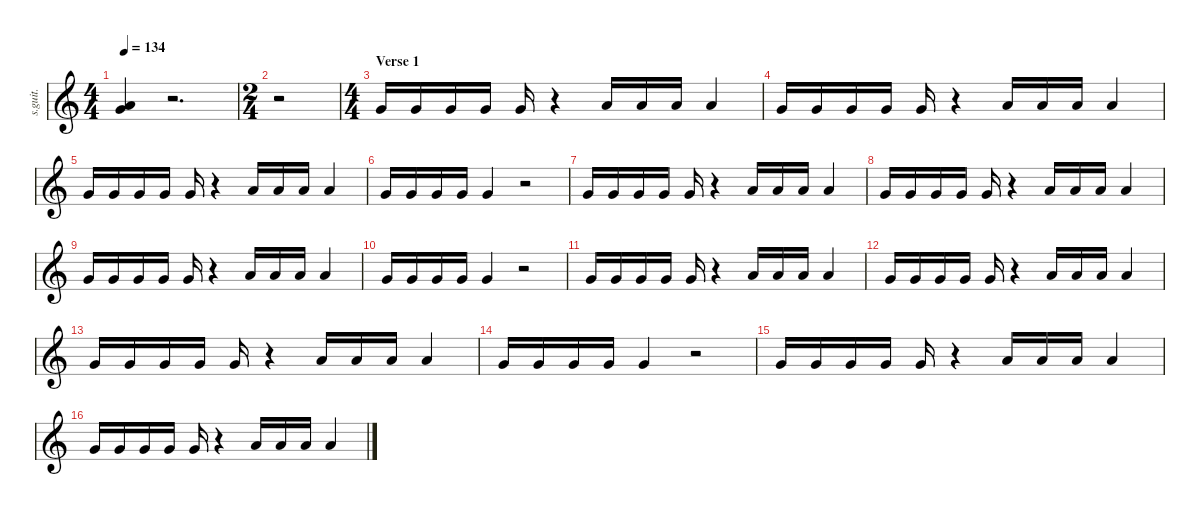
\defaultSystemsLayout 4
\hideDynamics
\bracketExtendMode nobrackets
\track ("Shawn Crahan" "s.guit.") {instrument percussion}
\staff {score}
\articulation defaults
\ts (4 4)
\tempo 134
\clef g2
\ks c
("Very Low Tom (hit)" "Low Floor Tom (hit)").4{dy f} r.2{d} |
\ts (2 4)
\beaming (8 2 2 2 2)
r.2 |
\ts (4 4)
\beaming (8 2 2 2 2)
\section ("" "Verse 1")
"Very Low Tom (hit)".16 "Very Low Tom (hit)".16 "Very Low Tom (hit)".16 "Very Low Tom (hit)".16 "Very Low Tom (hit)".16 r.4 "Low Floor Tom (hit)".16 "Low Floor Tom (hit)".16 "Low Floor Tom (hit)".16 "Low Floor Tom (hit)".4 |
"Very Low Tom (hit)".16 "Very Low Tom (hit)".16 "Very Low Tom (hit)".16 "Very Low Tom (hit)".16 "Very Low Tom (hit)".16 r.4 "Low Floor Tom (hit)".16 "Low Floor Tom (hit)".16 "Low Floor Tom (hit)".16 "Low Floor Tom (hit)".4 |
"Very Low Tom (hit)".16 "Very Low Tom (hit)".16 "Very Low Tom (hit)".16 "Very Low Tom (hit)".16 "Very Low Tom (hit)".16 r.4 "Low Floor Tom (hit)".16 "Low Floor Tom (hit)".16 "Low Floor Tom (hit)".16 "Low Floor Tom (hit)".4 |
"Very Low Tom (hit)".16 "Very Low Tom (hit)".16 "Very Low Tom (hit)".16 "Very Low Tom (hit)".16 "Very Low Tom (hit)".4 r.2 |
"Very Low Tom (hit)".16 "Very Low Tom (hit)".16 "Very Low Tom (hit)".16 "Very Low Tom (hit)".16 "Very Low Tom (hit)".16 r.4 "Low Floor Tom (hit)".16 "Low Floor Tom (hit)".16 "Low Floor Tom (hit)".16 "Low Floor Tom (hit)".4 |
"Very Low Tom (hit)".16 "Very Low Tom (hit)".16 "Very Low Tom (hit)".16 "Very Low Tom (hit)".16 "Very Low Tom (hit)".16 r.4 "Low Floor Tom (hit)".16 "Low Floor Tom (hit)".16 "Low Floor Tom (hit)".16 "Low Floor Tom (hit)".4 |
"Very Low Tom (hit)".16 "Very Low Tom (hit)".16 "Very Low Tom (hit)".16 "Very Low Tom (hit)".16 "Very Low Tom (hit)".16 r.4 "Low Floor Tom (hit)".16 "Low Floor Tom (hit)".16 "Low Floor Tom (hit)".16 "Low Floor Tom (hit)".4 |
"Very Low Tom (hit)".16 "Very Low Tom (hit)".16 "Very Low Tom (hit)".16 "Very Low Tom (hit)".16 "Very Low Tom (hit)".4 r.2 |
"Very Low Tom (hit)".16 "Very Low Tom (hit)".16 "Very Low Tom (hit)".16 "Very Low Tom (hit)".16 "Very Low Tom (hit)".16 r.4 "Low Floor Tom (hit)".16 "Low Floor Tom (hit)".16 "Low Floor Tom (hit)".16 "Low Floor Tom (hit)".4 |
"Very Low Tom (hit)".16 "Very Low Tom (hit)".16 "Very Low Tom (hit)".16 "Very Low Tom (hit)".16 "Very Low Tom (hit)".16 r.4 "Low Floor Tom (hit)".16 "Low Floor Tom (hit)".16 "Low Floor Tom (hit)".16 "Low Floor Tom (hit)".4 |
"Very Low Tom (hit)".16 "Very Low Tom (hit)".16 "Very Low Tom (hit)".16 "Very Low Tom (hit)".16 "Very Low Tom (hit)".16 r.4 "Low Floor Tom (hit)".16 "Low Floor Tom (hit)".16 "Low Floor Tom (hit)".16 "Low Floor Tom (hit)".4 |
"Very Low Tom (hit)".16 "Very Low Tom (hit)".16 "Very Low Tom (hit)".16 "Very Low Tom (hit)".16 "Very Low Tom (hit)".4 r.2 |
"Very Low Tom (hit)".16 "Very Low Tom (hit)".16 "Very Low Tom (hit)".16 "Very Low Tom (hit)".16 "Very Low Tom (hit)".16 r.4 "Low Floor Tom (hit)".16 "Low Floor Tom (hit)".16 "Low Floor Tom (hit)".16 "Low Floor Tom (hit)".4 |
"Very Low Tom (hit)".16 "Very Low Tom (hit)".16 "Very Low Tom (hit)".16 "Very Low Tom (hit)".16 "Very Low Tom (hit)".16 r.4 "Low Floor Tom (hit)".16 "Low Floor Tom (hit)".16 "Low Floor Tom (hit)".16 "Low Floor Tom (hit)".4
